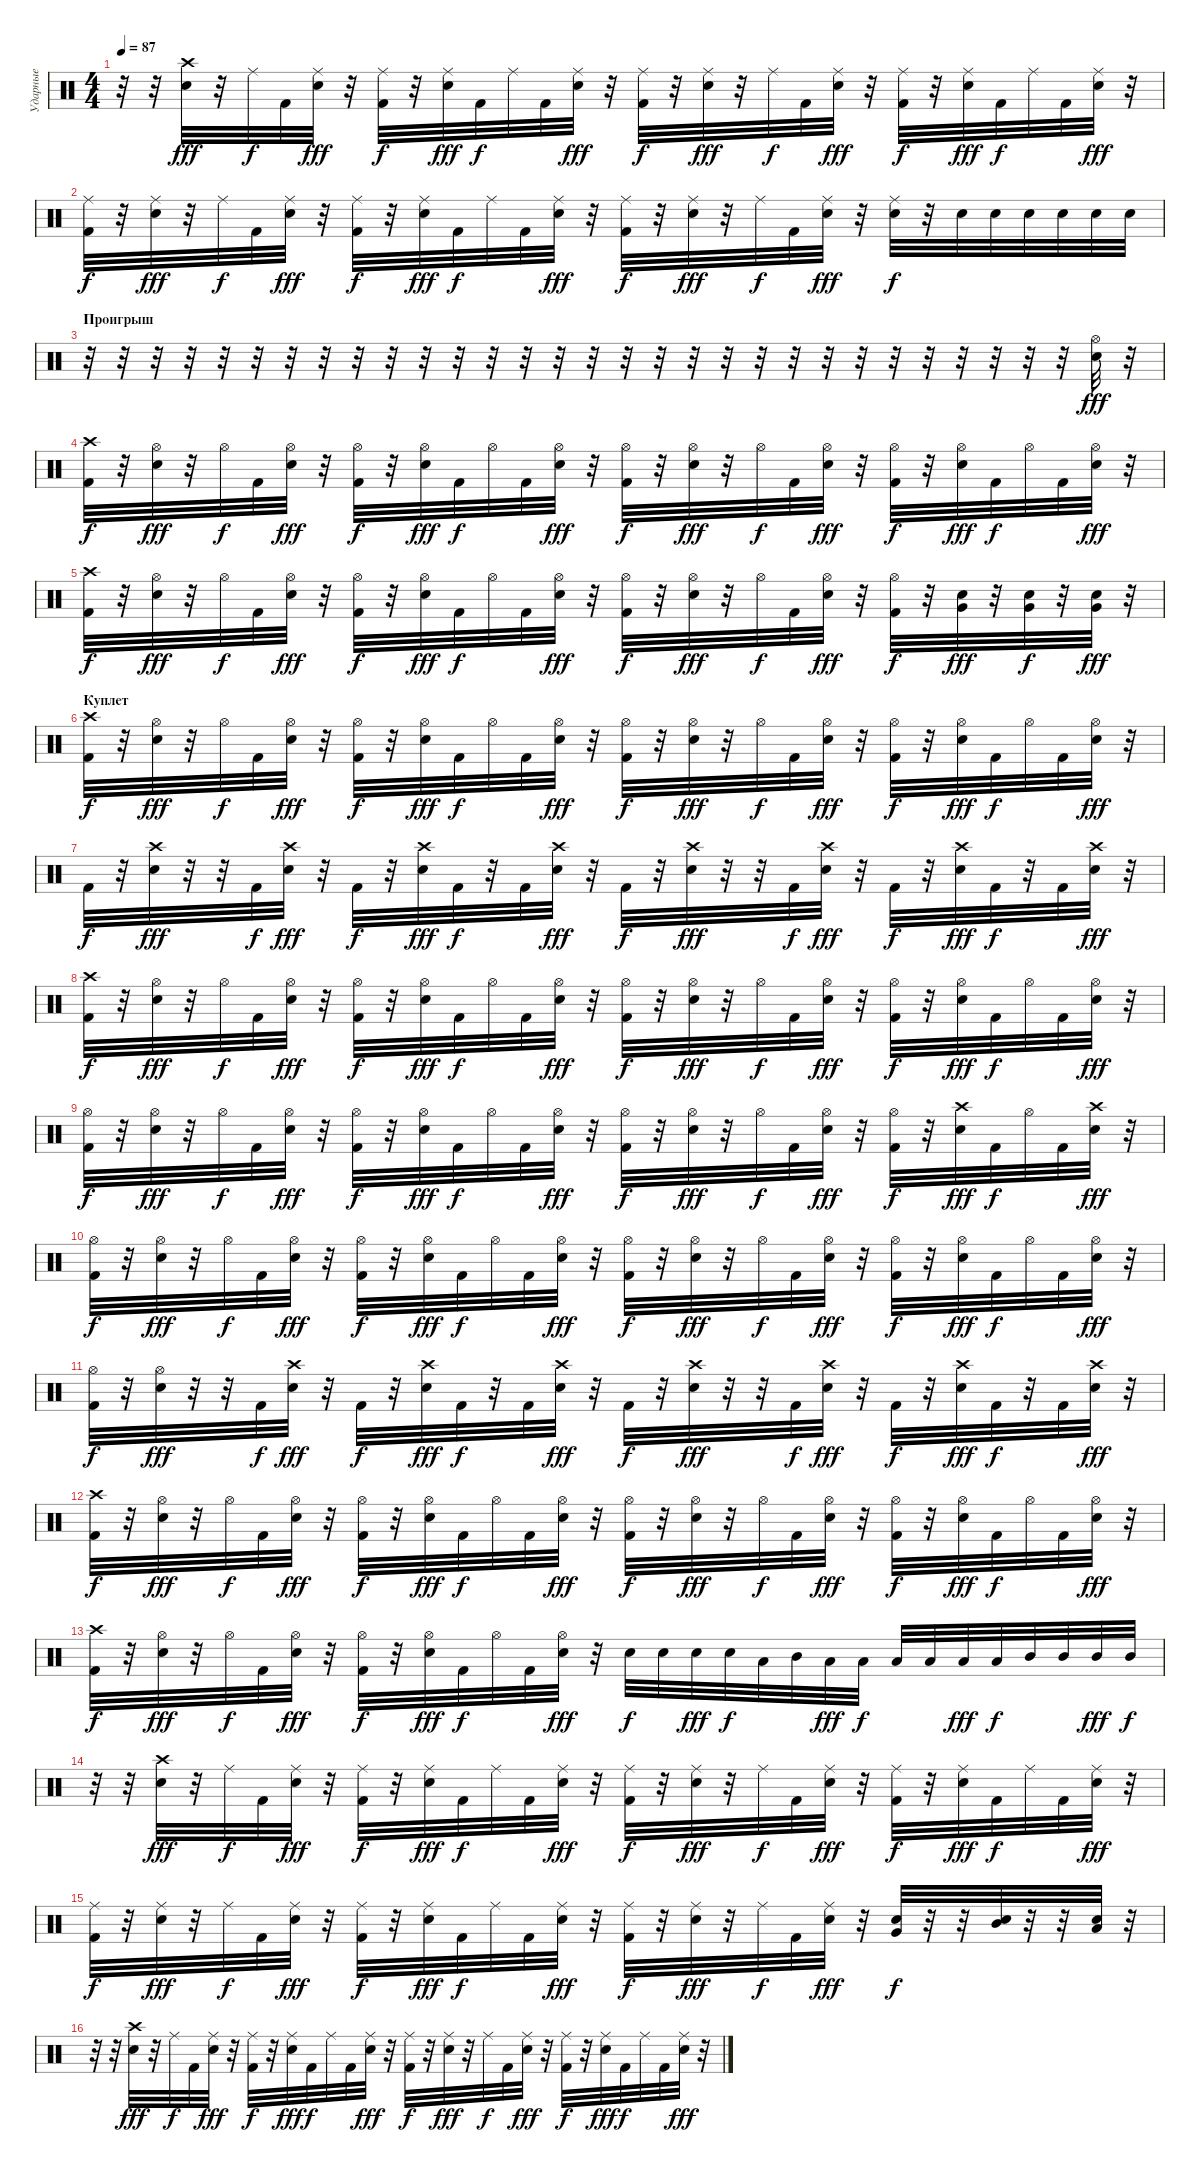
\track ("Ударные" "Ударные") {instrument percussion}
\staff {score}
\articulation defaults
\ts (4 4)
\tempo 87
\clef neutral
\ks c
r.32{dy f} r.32 ("Crash high (hit)" "Snare (hit) 2").32{dy fff} r.32 "Ride (middle)".32{dy f} "Kick (hit) 2".32 ("Ride (middle)" "Snare (hit) 2").32{dy fff} r.32 ("Ride (middle)" "Kick (hit) 2").32{dy f} r.32 ("Ride (middle)" "Snare (hit) 2").32{dy fff} "Kick (hit) 2".32{dy f} "Ride (middle)".32 "Kick (hit) 2".32 ("Ride (middle)" "Snare (hit) 2").32{dy fff} r.32 ("Ride (middle)" "Kick (hit) 2").32{dy f} r.32 ("Ride (middle)" "Snare (hit) 2").32{dy fff} r.32 "Ride (middle)".32{dy f} "Kick (hit) 2".32 ("Ride (middle)" "Snare (hit) 2").32{dy fff} r.32 ("Ride (middle)" "Kick (hit) 2").32{dy f} r.32 ("Ride (middle)" "Snare (hit) 2").32{dy fff} "Kick (hit) 2".32{dy f} "Ride (middle)".32 "Kick (hit) 2".32 ("Ride (middle)" "Snare (hit) 2").32{dy fff} r.32 |
("Ride (middle)" "Kick (hit) 2").32{dy f} r.32 ("Ride (middle)" "Snare (hit) 2").32{dy fff} r.32 "Ride (middle)".32{dy f} "Kick (hit) 2".32 ("Ride (middle)" "Snare (hit) 2").32{dy fff} r.32 ("Ride (middle)" "Kick (hit) 2").32{dy f} r.32 ("Ride (middle)" "Snare (hit) 2").32{dy fff} "Kick (hit) 2".32{dy f} "Ride (middle)".32 "Kick (hit) 2".32 ("Ride (middle)" "Snare (hit) 2").32{dy fff} r.32 ("Ride (middle)" "Kick (hit) 2").32{dy f} r.32 ("Ride (middle)" "Snare (hit) 2").32{dy fff} r.32 "Ride (middle)".32{dy f} "Kick (hit) 2".32 ("Ride (middle)" "Snare (hit) 2").32{dy fff} r.32 ("Ride (middle)" "Snare (hit) 2").32{dy f} r.32 "Snare (hit) 2".32 "Snare (hit) 2".32 "Snare (hit) 2".32 "Snare (hit) 2".32 "Snare (hit) 2".32 "Snare (hit) 2".32 |
\section ("" "Проигрыш")
r.32 r.32 r.32 r.32 r.32 r.32 r.32 r.32 r.32 r.32 r.32 r.32 r.32 r.32 r.32 r.32 r.32 r.32 r.32 r.32 r.32 r.32 r.32 r.32 r.32 r.32 r.32 r.32 r.32 r.32 ("Hi-Hat (open)" "Snare (hit) 2").32{dy fff} r.32 |
("Crash high (hit)" "Kick (hit) 2").32{dy f} r.32 ("Hi-Hat (open)" "Snare (hit) 2").32{dy fff} r.32 "Hi-Hat (open)".32{dy f} "Kick (hit) 2".32 ("Hi-Hat (open)" "Snare (hit) 2").32{dy fff} r.32 ("Hi-Hat (open)" "Kick (hit) 2").32{dy f} r.32 ("Hi-Hat (open)" "Snare (hit) 2").32{dy fff} "Kick (hit) 2".32{dy f} "Hi-Hat (open)".32 "Kick (hit) 2".32 ("Hi-Hat (open)" "Snare (hit) 2").32{dy fff} r.32 ("Hi-Hat (open)" "Kick (hit) 2").32{dy f} r.32 ("Hi-Hat (open)" "Snare (hit) 2").32{dy fff} r.32 "Hi-Hat (open)".32{dy f} "Kick (hit) 2".32 ("Hi-Hat (open)" "Snare (hit) 2").32{dy fff} r.32 ("Hi-Hat (open)" "Kick (hit) 2").32{dy f} r.32 ("Hi-Hat (open)" "Snare (hit) 2").32{dy fff} "Kick (hit) 2".32{dy f} "Hi-Hat (open)".32 "Kick (hit) 2".32 ("Hi-Hat (open)" "Snare (hit) 2").32{dy fff} r.32 |
("Crash high (hit)" "Kick (hit) 2").32{dy f} r.32 ("Hi-Hat (open)" "Snare (hit) 2").32{dy fff} r.32 "Hi-Hat (open)".32{dy f} "Kick (hit) 2".32 ("Hi-Hat (open)" "Snare (hit) 2").32{dy fff} r.32 ("Hi-Hat (open)" "Kick (hit) 2").32{dy f} r.32 ("Hi-Hat (open)" "Snare (hit) 2").32{dy fff} "Kick (hit) 2".32{dy f} "Hi-Hat (open)".32 "Kick (hit) 2".32 ("Hi-Hat (open)" "Snare (hit) 2").32{dy fff} r.32 ("Hi-Hat (open)" "Kick (hit) 2").32{dy f} r.32 ("Hi-Hat (open)" "Snare (hit) 2").32{dy fff} r.32 "Hi-Hat (open)".32{dy f} "Kick (hit) 2".32 ("Hi-Hat (open)" "Snare (hit) 2").32{dy fff} r.32 ("Hi-Hat (open)" "Kick (hit) 2").32{dy f} r.32 ("Very Low Tom (hit)" "Snare (hit) 2").32{dy fff} r.32 ("Very Low Tom (hit)" "Snare (hit) 2").32{dy f} r.32 ("Very Low Tom (hit)" "Snare (hit) 2").32{dy fff} r.32 |
\section ("" "Куплет")
("Crash high (hit)" "Kick (hit) 2").32{dy f} r.32 ("Hi-Hat (open)" "Snare (hit) 2").32{dy fff} r.32 "Hi-Hat (open)".32{dy f} "Kick (hit) 2".32 ("Hi-Hat (open)" "Snare (hit) 2").32{dy fff} r.32 ("Hi-Hat (open)" "Kick (hit) 2").32{dy f} r.32 ("Hi-Hat (open)" "Snare (hit) 2").32{dy fff} "Kick (hit) 2".32{dy f} "Hi-Hat (open)".32 "Kick (hit) 2".32 ("Hi-Hat (open)" "Snare (hit) 2").32{dy fff} r.32 ("Hi-Hat (open)" "Kick (hit) 2").32{dy f} r.32 ("Hi-Hat (open)" "Snare (hit) 2").32{dy fff} r.32 "Hi-Hat (open)".32{dy f} "Kick (hit) 2".32 ("Hi-Hat (open)" "Snare (hit) 2").32{dy fff} r.32 ("Hi-Hat (open)" "Kick (hit) 2").32{dy f} r.32 ("Hi-Hat (open)" "Snare (hit) 2").32{dy fff} "Kick (hit) 2".32{dy f} "Hi-Hat (open)".32 "Kick (hit) 2".32 ("Hi-Hat (open)" "Snare (hit) 2").32{dy fff} r.32 |
"Kick (hit) 2".32{dy f} r.32 ("Crash high (hit)" "Snare (hit) 2").32{dy fff} r.32 r.32 "Kick (hit) 2".32{dy f} ("Crash high (hit)" "Snare (hit) 2").32{dy fff} r.32 "Kick (hit) 2".32{dy f} r.32 ("Crash high (hit)" "Snare (hit) 2").32{dy fff} "Kick (hit) 2".32{dy f} r.32 "Kick (hit) 2".32 ("Crash high (hit)" "Snare (hit) 2").32{dy fff} r.32 "Kick (hit) 2".32{dy f} r.32 ("Crash high (hit)" "Snare (hit) 2").32{dy fff} r.32 r.32 "Kick (hit) 2".32{dy f} ("Crash high (hit)" "Snare (hit) 2").32{dy fff} r.32 "Kick (hit) 2".32{dy f} r.32 ("Crash high (hit)" "Snare (hit) 2").32{dy fff} "Kick (hit) 2".32{dy f} r.32 "Kick (hit) 2".32 ("Crash high (hit)" "Snare (hit) 2").32{dy fff} r.32 |
("Crash high (hit)" "Kick (hit) 2").32{dy f} r.32 ("Hi-Hat (open)" "Snare (hit) 2").32{dy fff} r.32 "Hi-Hat (open)".32{dy f} "Kick (hit) 2".32 ("Hi-Hat (open)" "Snare (hit) 2").32{dy fff} r.32 ("Hi-Hat (open)" "Kick (hit) 2").32{dy f} r.32 ("Hi-Hat (open)" "Snare (hit) 2").32{dy fff} "Kick (hit) 2".32{dy f} "Hi-Hat (open)".32 "Kick (hit) 2".32 ("Hi-Hat (open)" "Snare (hit) 2").32{dy fff} r.32 ("Hi-Hat (open)" "Kick (hit) 2").32{dy f} r.32 ("Hi-Hat (open)" "Snare (hit) 2").32{dy fff} r.32 "Hi-Hat (open)".32{dy f} "Kick (hit) 2".32 ("Hi-Hat (open)" "Snare (hit) 2").32{dy fff} r.32 ("Hi-Hat (open)" "Kick (hit) 2").32{dy f} r.32 ("Hi-Hat (open)" "Snare (hit) 2").32{dy fff} "Kick (hit) 2".32{dy f} "Hi-Hat (open)".32 "Kick (hit) 2".32 ("Hi-Hat (open)" "Snare (hit) 2").32{dy fff} r.32 |
("Hi-Hat (open)" "Kick (hit) 2").32{dy f} r.32 ("Hi-Hat (open)" "Snare (hit) 2").32{dy fff} r.32 "Hi-Hat (open)".32{dy f} "Kick (hit) 2".32 ("Hi-Hat (open)" "Snare (hit) 2").32{dy fff} r.32 ("Hi-Hat (open)" "Kick (hit) 2").32{dy f} r.32 ("Hi-Hat (open)" "Snare (hit) 2").32{dy fff} "Kick (hit) 2".32{dy f} "Hi-Hat (open)".32 "Kick (hit) 2".32 ("Hi-Hat (open)" "Snare (hit) 2").32{dy fff} r.32 ("Hi-Hat (open)" "Kick (hit) 2").32{dy f} r.32 ("Hi-Hat (open)" "Snare (hit) 2").32{dy fff} r.32 "Hi-Hat (open)".32{dy f} "Kick (hit) 2".32 ("Hi-Hat (open)" "Snare (hit) 2").32{dy fff} r.32 ("Hi-Hat (open)" "Kick (hit) 2").32{dy f} r.32 ("Crash high (hit)" "Snare (hit) 2").32{dy fff} "Kick (hit) 2".32{dy f} "Hi-Hat (open)".32 "Kick (hit) 2".32 ("Crash high (hit)" "Snare (hit) 2").32{dy fff} r.32 |
("Hi-Hat (open)" "Kick (hit) 2").32{dy f} r.32 ("Hi-Hat (open)" "Snare (hit) 2").32{dy fff} r.32 "Hi-Hat (open)".32{dy f} "Kick (hit) 2".32 ("Hi-Hat (open)" "Snare (hit) 2").32{dy fff} r.32 ("Hi-Hat (open)" "Kick (hit) 2").32{dy f} r.32 ("Hi-Hat (open)" "Snare (hit) 2").32{dy fff} "Kick (hit) 2".32{dy f} "Hi-Hat (open)".32 "Kick (hit) 2".32 ("Hi-Hat (open)" "Snare (hit) 2").32{dy fff} r.32 ("Hi-Hat (open)" "Kick (hit) 2").32{dy f} r.32 ("Hi-Hat (open)" "Snare (hit) 2").32{dy fff} r.32 "Hi-Hat (open)".32{dy f} "Kick (hit) 2".32 ("Hi-Hat (open)" "Snare (hit) 2").32{dy fff} r.32 ("Hi-Hat (open)" "Kick (hit) 2").32{dy f} r.32 ("Hi-Hat (open)" "Snare (hit) 2").32{dy fff} "Kick (hit) 2".32{dy f} "Hi-Hat (open)".32 "Kick (hit) 2".32 ("Hi-Hat (open)" "Snare (hit) 2").32{dy fff} r.32 |
("Hi-Hat (open)" "Kick (hit) 2").32{dy f} r.32 ("Hi-Hat (open)" "Snare (hit) 2").32{dy fff} r.32 r.32 "Kick (hit) 2".32{dy f} ("Crash high (hit)" "Snare (hit) 2").32{dy fff} r.32 "Kick (hit) 2".32{dy f} r.32 ("Crash high (hit)" "Snare (hit) 2").32{dy fff} "Kick (hit) 2".32{dy f} r.32 "Kick (hit) 2".32 ("Crash high (hit)" "Snare (hit) 2").32{dy fff} r.32 "Kick (hit) 2".32{dy f} r.32 ("Crash high (hit)" "Snare (hit) 2").32{dy fff} r.32 r.32 "Kick (hit) 2".32{dy f} ("Crash high (hit)" "Snare (hit) 2").32{dy fff} r.32 "Kick (hit) 2".32{dy f} r.32 ("Crash high (hit)" "Snare (hit) 2").32{dy fff} "Kick (hit) 2".32{dy f} r.32 "Kick (hit) 2".32 ("Crash high (hit)" "Snare (hit) 2").32{dy fff} r.32 |
("Crash high (hit)" "Kick (hit) 2").32{dy f} r.32 ("Hi-Hat (open)" "Snare (hit) 2").32{dy fff} r.32 "Hi-Hat (open)".32{dy f} "Kick (hit) 2".32 ("Hi-Hat (open)" "Snare (hit) 2").32{dy fff} r.32 ("Hi-Hat (open)" "Kick (hit) 2").32{dy f} r.32 ("Hi-Hat (open)" "Snare (hit) 2").32{dy fff} "Kick (hit) 2".32{dy f} "Hi-Hat (open)".32 "Kick (hit) 2".32 ("Hi-Hat (open)" "Snare (hit) 2").32{dy fff} r.32 ("Hi-Hat (open)" "Kick (hit) 2").32{dy f} r.32 ("Hi-Hat (open)" "Snare (hit) 2").32{dy fff} r.32 "Hi-Hat (open)".32{dy f} "Kick (hit) 2".32 ("Hi-Hat (open)" "Snare (hit) 2").32{dy fff} r.32 ("Hi-Hat (open)" "Kick (hit) 2").32{dy f} r.32 ("Hi-Hat (open)" "Snare (hit) 2").32{dy fff} "Kick (hit) 2".32{dy f} "Hi-Hat (open)".32 "Kick (hit) 2".32 ("Hi-Hat (open)" "Snare (hit) 2").32{dy fff} r.32 |
("Crash high (hit)" "Kick (hit) 2").32{dy f} r.32 ("Hi-Hat (open)" "Snare (hit) 2").32{dy fff} r.32 "Hi-Hat (open)".32{dy f} "Kick (hit) 2".32 ("Hi-Hat (open)" "Snare (hit) 2").32{dy fff} r.32 ("Hi-Hat (open)" "Kick (hit) 2").32{dy f} r.32 ("Hi-Hat (open)" "Snare (hit) 2").32{dy fff} "Kick (hit) 2".32{dy f} "Hi-Hat (open)".32 "Kick (hit) 2".32 ("Hi-Hat (open)" "Snare (hit) 2").32{dy fff} r.32 "Snare (hit) 2".32{dy f} "Snare (hit) 2".32 "Snare (hit) 2".32{dy fff} "Snare (hit) 2".32{dy f} "Low Tom (hit)".32 "Mid Tom (hit)".32 "Low Tom (hit)".32{dy fff} "Low Tom (hit)".32{dy f} "Low Tom (hit)".32 "Low Tom (hit)".32 "Low Tom (hit)".32{dy fff} "Low Tom (hit)".32{dy f} "Mid Tom (hit)".32 "Mid Tom (hit)".32 "Mid Tom (hit)".32{dy fff} "Mid Tom (hit)".32{dy f} |
r.32 r.32 ("Crash high (hit)" "Snare (hit) 2").32{dy fff} r.32 "Ride (middle)".32{dy f} "Kick (hit) 2".32 ("Ride (middle)" "Snare (hit) 2").32{dy fff} r.32 ("Ride (middle)" "Kick (hit) 2").32{dy f} r.32 ("Ride (middle)" "Snare (hit) 2").32{dy fff} "Kick (hit) 2".32{dy f} "Ride (middle)".32 "Kick (hit) 2".32 ("Ride (middle)" "Snare (hit) 2").32{dy fff} r.32 ("Ride (middle)" "Kick (hit) 2").32{dy f} r.32 ("Ride (middle)" "Snare (hit) 2").32{dy fff} r.32 "Ride (middle)".32{dy f} "Kick (hit) 2".32 ("Ride (middle)" "Snare (hit) 2").32{dy fff} r.32 ("Ride (middle)" "Kick (hit) 2").32{dy f} r.32 ("Ride (middle)" "Snare (hit) 2").32{dy fff} "Kick (hit) 2".32{dy f} "Ride (middle)".32 "Kick (hit) 2".32 ("Ride (middle)" "Snare (hit) 2").32{dy fff} r.32 |
("Ride (middle)" "Kick (hit) 2").32{dy f} r.32 ("Ride (middle)" "Snare (hit) 2").32{dy fff} r.32 "Ride (middle)".32{dy f} "Kick (hit) 2".32 ("Ride (middle)" "Snare (hit) 2").32{dy fff} r.32 ("Ride (middle)" "Kick (hit) 2").32{dy f} r.32 ("Ride (middle)" "Snare (hit) 2").32{dy fff} "Kick (hit) 2".32{dy f} "Ride (middle)".32 "Kick (hit) 2".32 ("Ride (middle)" "Snare (hit) 2").32{dy fff} r.32 ("Ride (middle)" "Kick (hit) 2").32{dy f} r.32 ("Ride (middle)" "Snare (hit) 2").32{dy fff} r.32 "Ride (middle)".32{dy f} "Kick (hit) 2".32 ("Ride (middle)" "Snare (hit) 2").32{dy fff} r.32 ("Very Low Tom (hit)" "Snare (hit) 2").32{dy f} r.32 r.32 ("Mid Tom (hit)" "Snare (hit) 2").32 r.32 r.32 ("Low Tom (hit)" "Snare (hit) 2").32 r.32 |
r.32 r.32 ("Crash high (hit)" "Snare (hit) 2").32{dy fff} r.32 "Ride (middle)".32{dy f} "Kick (hit) 2".32 ("Ride (middle)" "Snare (hit) 2").32{dy fff} r.32 ("Ride (middle)" "Kick (hit) 2").32{dy f} r.32 ("Ride (middle)" "Snare (hit) 2").32{dy fff} "Kick (hit) 2".32{dy f} "Ride (middle)".32 "Kick (hit) 2".32 ("Ride (middle)" "Snare (hit) 2").32{dy fff} r.32 ("Ride (middle)" "Kick (hit) 2").32{dy f} r.32 ("Ride (middle)" "Snare (hit) 2").32{dy fff} r.32 "Ride (middle)".32{dy f} "Kick (hit) 2".32 ("Ride (middle)" "Snare (hit) 2").32{dy fff} r.32 ("Ride (middle)" "Kick (hit) 2").32{dy f} r.32 ("Ride (middle)" "Snare (hit) 2").32{dy fff} "Kick (hit) 2".32{dy f} "Ride (middle)".32 "Kick (hit) 2".32 ("Ride (middle)" "Snare (hit) 2").32{dy fff} r.32
